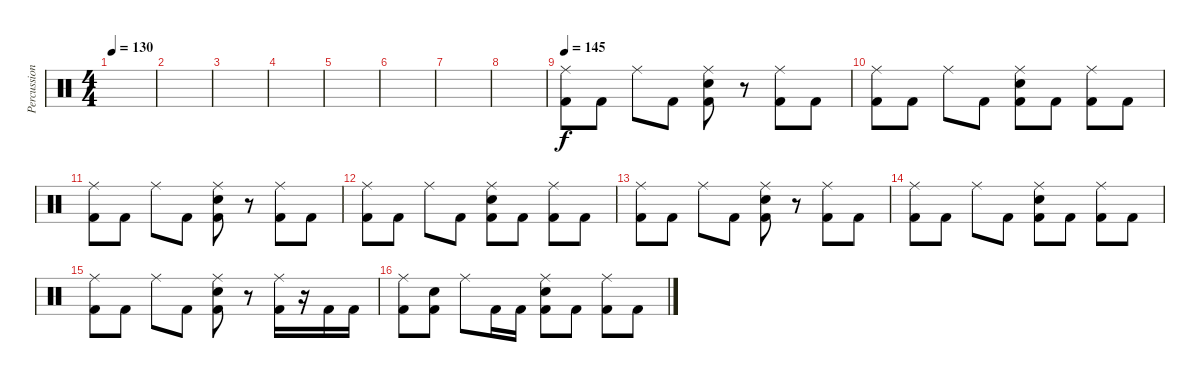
\track ("Percussion" "Percussion") {instrument percussion}
\staff {score}
\articulation defaults
\ts (4 4)
\tempo 130
\clef neutral
\ks c
|
|
|
|
|
|
|
|
\tempo 145
("Ride (middle)" "Kick (hit) 2").8{dy f} "Kick (hit) 2".8 "Ride (middle)".8 "Kick (hit) 2".8 ("Ride (middle)" "Snare (hit) 2" "Kick (hit) 2").8 r.8 ("Ride (middle)" "Kick (hit) 2").8 "Kick (hit) 2".8 |
("Ride (middle)" "Kick (hit) 2").8 "Kick (hit) 2".8 "Ride (middle)".8 "Kick (hit) 2".8 ("Ride (middle)" "Snare (hit) 2" "Kick (hit) 2").8 "Kick (hit) 2".8 ("Ride (middle)" "Kick (hit) 2").8 "Kick (hit) 2".8 |
("Ride (middle)" "Kick (hit) 2").8 "Kick (hit) 2".8 "Ride (middle)".8 "Kick (hit) 2".8 ("Ride (middle)" "Snare (hit) 2" "Kick (hit) 2").8 r.8 ("Ride (middle)" "Kick (hit) 2").8 "Kick (hit) 2".8 |
("Ride (middle)" "Kick (hit) 2").8 "Kick (hit) 2".8 "Ride (middle)".8 "Kick (hit) 2".8 ("Ride (middle)" "Snare (hit) 2" "Kick (hit) 2").8 "Kick (hit) 2".8 ("Ride (middle)" "Kick (hit) 2").8 "Kick (hit) 2".8 |
("Ride (middle)" "Kick (hit) 2").8 "Kick (hit) 2".8 "Ride (middle)".8 "Kick (hit) 2".8 ("Ride (middle)" "Snare (hit) 2" "Kick (hit) 2").8 r.8 ("Ride (middle)" "Kick (hit) 2").8 "Kick (hit) 2".8 |
("Ride (middle)" "Kick (hit) 2").8 "Kick (hit) 2".8 "Ride (middle)".8 "Kick (hit) 2".8 ("Ride (middle)" "Snare (hit) 2" "Kick (hit) 2").8 "Kick (hit) 2".8 ("Ride (middle)" "Kick (hit) 2").8 "Kick (hit) 2".8 |
("Ride (middle)" "Kick (hit) 2").8 "Kick (hit) 2".8 "Ride (middle)".8 "Kick (hit) 2".8 ("Ride (middle)" "Snare (hit) 2" "Kick (hit) 2").8 r.8 ("Ride (middle)" "Kick (hit) 2").16 r.16 "Kick (hit) 2".16 "Kick (hit) 2".16 |
("Ride (middle)" "Kick (hit) 2").8 ("Snare (hit) 2" "Kick (hit) 2").8 "Ride (middle)".8 "Kick (hit) 2".16 "Kick (hit) 2".16 ("Ride (middle)" "Snare (hit) 2" "Kick (hit) 2").8 "Kick (hit) 2".8 ("Ride (middle)" "Kick (hit) 2").8 "Kick (hit) 2".8
